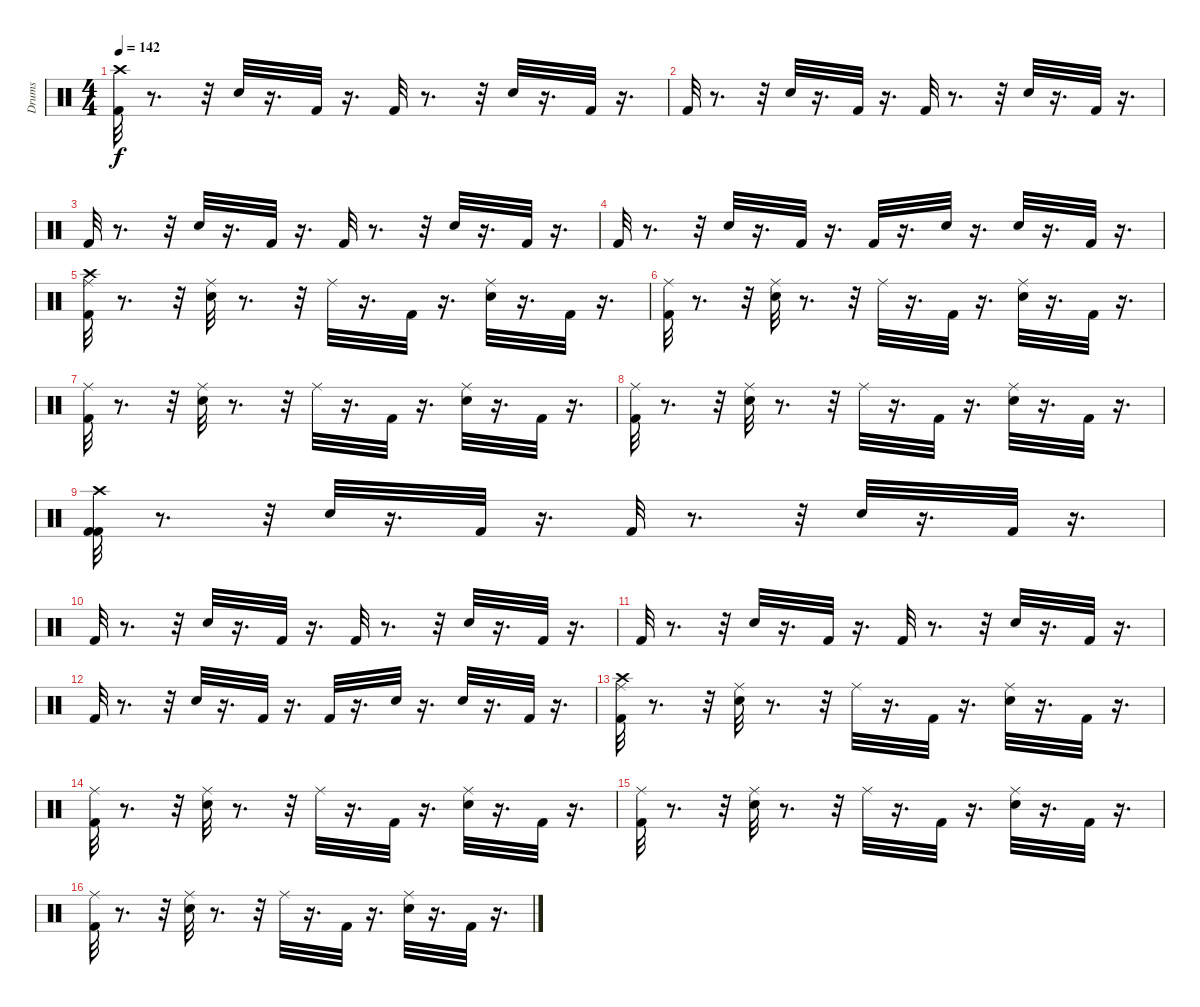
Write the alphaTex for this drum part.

\track ("Drums" "Drums") {instrument percussion}
\staff {score}
\articulation defaults
\ts (4 4)
\tempo 142
\clef neutral
\ks c
("Crash high (hit)" "Kick (hit) 2").32{dy f} r.8{d} r.32 "Snare (hit) 2".32 r.16{d} "Kick (hit) 2".32 r.16{d} "Kick (hit) 2".32 r.8{d} r.32 "Snare (hit) 2".32 r.16{d} "Kick (hit) 2".32 r.16{d} |
"Kick (hit) 2".32 r.8{d} r.32 "Snare (hit) 2".32 r.16{d} "Kick (hit) 2".32 r.16{d} "Kick (hit) 2".32 r.8{d} r.32 "Snare (hit) 2".32 r.16{d} "Kick (hit) 2".32 r.16{d} |
"Kick (hit) 2".32 r.8{d} r.32 "Snare (hit) 2".32 r.16{d} "Kick (hit) 2".32 r.16{d} "Kick (hit) 2".32 r.8{d} r.32 "Snare (hit) 2".32 r.16{d} "Kick (hit) 2".32 r.16{d} |
"Kick (hit) 2".32 r.8{d} r.32 "Snare (hit) 2".32 r.16{d} "Kick (hit) 2".32 r.16{d} "Kick (hit) 2".32 r.16{d} "Snare (hit) 2".32 r.16{d} "Snare (hit) 2".32 r.16{d} "Kick (hit) 2".32 r.16{d} |
("Ride (middle)" "Kick (hit) 2" "Crash high (hit)").32 r.8{d} r.32 ("Ride (middle)" "Snare (hit) 2").32 r.8{d} r.32 "Ride (middle)".32 r.16{d} "Kick (hit) 2".32 r.16{d} ("Ride (middle)" "Snare (hit) 2").32 r.16{d} "Kick (hit) 2".32 r.16{d} |
("Ride (middle)" "Kick (hit) 2").32 r.8{d} r.32 ("Ride (middle)" "Snare (hit) 2").32 r.8{d} r.32 "Ride (middle)".32 r.16{d} "Kick (hit) 2".32 r.16{d} ("Ride (middle)" "Snare (hit) 2").32 r.16{d} "Kick (hit) 2".32 r.16{d} |
("Ride (middle)" "Kick (hit) 2").32 r.8{d} r.32 ("Ride (middle)" "Snare (hit) 2").32 r.8{d} r.32 "Ride (middle)".32 r.16{d} "Kick (hit) 2".32 r.16{d} ("Ride (middle)" "Snare (hit) 2").32 r.16{d} "Kick (hit) 2".32 r.16{d} |
("Ride (middle)" "Kick (hit) 2").32 r.8{d} r.32 ("Ride (middle)" "Snare (hit) 2").32 r.8{d} r.32 "Ride (middle)".32 r.16{d} "Kick (hit) 2".32 r.16{d} ("Ride (middle)" "Snare (hit) 2").32 r.16{d} "Kick (hit) 2".32 r.16{d} |
("Kick (hit) 2" "Crash high (hit)" "Kick (hit) 2").32 r.8{d} r.32 "Snare (hit) 2".32 r.16{d} "Kick (hit) 2".32 r.16{d} "Kick (hit) 2".32 r.8{d} r.32 "Snare (hit) 2".32 r.16{d} "Kick (hit) 2".32 r.16{d} |
"Kick (hit) 2".32 r.8{d} r.32 "Snare (hit) 2".32 r.16{d} "Kick (hit) 2".32 r.16{d} "Kick (hit) 2".32 r.8{d} r.32 "Snare (hit) 2".32 r.16{d} "Kick (hit) 2".32 r.16{d} |
"Kick (hit) 2".32 r.8{d} r.32 "Snare (hit) 2".32 r.16{d} "Kick (hit) 2".32 r.16{d} "Kick (hit) 2".32 r.8{d} r.32 "Snare (hit) 2".32 r.16{d} "Kick (hit) 2".32 r.16{d} |
"Kick (hit) 2".32 r.8{d} r.32 "Snare (hit) 2".32 r.16{d} "Kick (hit) 2".32 r.16{d} "Kick (hit) 2".32 r.16{d} "Snare (hit) 2".32 r.16{d} "Snare (hit) 2".32 r.16{d} "Kick (hit) 2".32 r.16{d} |
("Ride (middle)" "Kick (hit) 2" "Crash high (hit)").32 r.8{d} r.32 ("Ride (middle)" "Snare (hit) 2").32 r.8{d} r.32 "Ride (middle)".32 r.16{d} "Kick (hit) 2".32 r.16{d} ("Ride (middle)" "Snare (hit) 2").32 r.16{d} "Kick (hit) 2".32 r.16{d} |
("Ride (middle)" "Kick (hit) 2").32 r.8{d} r.32 ("Ride (middle)" "Snare (hit) 2").32 r.8{d} r.32 "Ride (middle)".32 r.16{d} "Kick (hit) 2".32 r.16{d} ("Ride (middle)" "Snare (hit) 2").32 r.16{d} "Kick (hit) 2".32 r.16{d} |
("Ride (middle)" "Kick (hit) 2").32 r.8{d} r.32 ("Ride (middle)" "Snare (hit) 2").32 r.8{d} r.32 "Ride (middle)".32 r.16{d} "Kick (hit) 2".32 r.16{d} ("Ride (middle)" "Snare (hit) 2").32 r.16{d} "Kick (hit) 2".32 r.16{d} |
("Ride (middle)" "Kick (hit) 2").32 r.8{d} r.32 ("Ride (middle)" "Snare (hit) 2").32 r.8{d} r.32 "Ride (middle)".32 r.16{d} "Kick (hit) 2".32 r.16{d} ("Ride (middle)" "Snare (hit) 2").32 r.16{d} "Kick (hit) 2".32 r.16{d}
